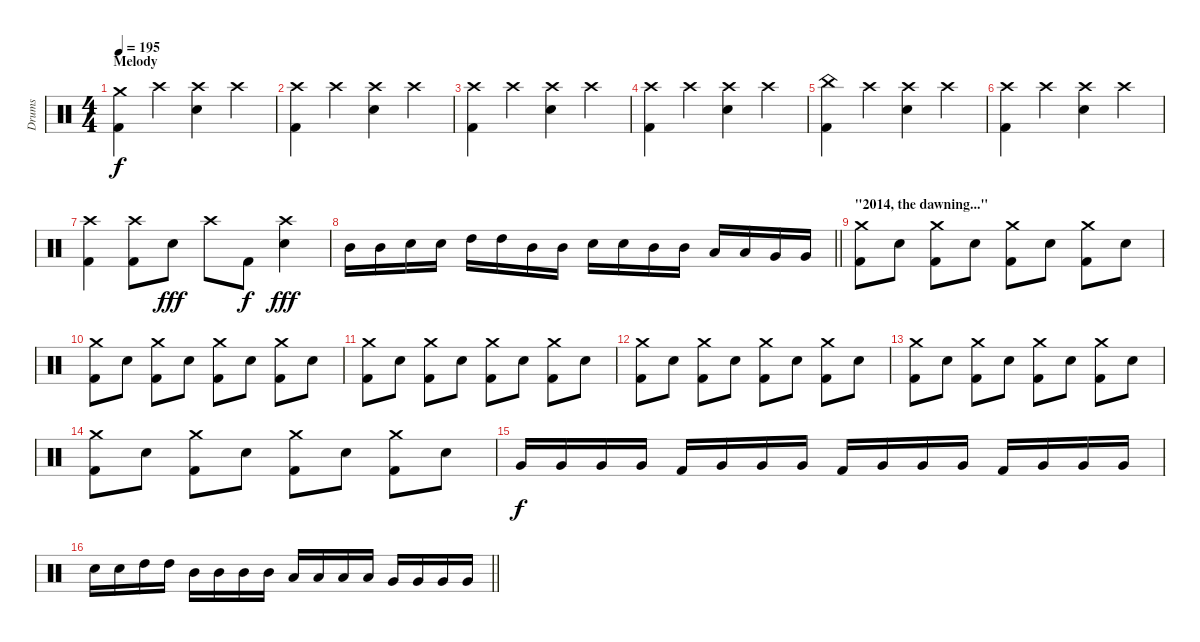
\track ("Drums" "Drums") {instrument percussion}
\staff {score}
\articulation defaults
\ts (4 4)
\section ("" "Melody")
\tempo 195
\clef neutral
\ks c
("Crash medium (hit)" "Kick (hit) 2").4{dy f} "Crash high (hit)".4 ("Crash high (hit)" "Snare (hit) 2").4 "Crash high (hit)".4 |
("Crash high (hit)" "Kick (hit) 2").4 "Crash high (hit)".4 ("Crash high (hit)" "Snare (hit) 2").4 "Crash high (hit)".4 |
("Crash high (hit)" "Kick (hit) 2").4 "Crash high (hit)".4 ("Crash high (hit)" "Snare (hit) 2").4 "Crash high (hit)".4 |
("Crash high (hit)" "Kick (hit) 2").4 "Crash high (hit)".4 ("Crash high (hit)" "Snare (hit) 2").4 "Crash high (hit)".4 |
("China (hit)" "Kick (hit) 2").4 "Crash high (hit)".4 ("Crash high (hit)" "Snare (hit) 2").4 "Crash high (hit)".4 |
("Crash high (hit)" "Kick (hit) 2").4 "Crash high (hit)".4 ("Crash high (hit)" "Snare (hit) 2").4 "Crash high (hit)".4 |
("Crash high (hit)" "Kick (hit) 2").4 ("Crash high (hit)" "Kick (hit) 2").8 "Snare (hit) 2".8{dy fff} "Crash high (hit)".8 "Kick (hit) 2".8{dy f} ("Crash high (hit)" "Snare (hit) 2").4{dy fff} |
\barLineRight lightlight "Mid Tom (hit)".16 "Mid Tom (hit)".16 "Snare (hit) 2".16 "Snare (hit) 2".16 "High Tom (hit)".16 "High Tom (hit)".16 "Mid Tom (hit)".16 "Mid Tom (hit)".16 "Snare (hit) 2".16 "Snare (hit) 2".16 "Mid Tom (hit)".16 "Mid Tom (hit)".16 "Low Tom (hit)".16 "Low Tom (hit)".16 "Very Low Tom (hit)".16 "Very Low Tom (hit)".16
|
\section ("" "\"2014, the dawning...\"")
("Crash medium (hit)" "Kick (hit) 2").8 "Snare (hit) 2".8 ("Crash medium (hit)" "Kick (hit) 2").8 "Snare (hit) 2".8 ("Crash medium (hit)" "Kick (hit) 2").8 "Snare (hit) 2".8 ("Crash medium (hit)" "Kick (hit) 2").8 "Snare (hit) 2".8 |
("Crash medium (hit)" "Kick (hit) 2").8 "Snare (hit) 2".8 ("Crash medium (hit)" "Kick (hit) 2").8 "Snare (hit) 2".8 ("Crash medium (hit)" "Kick (hit) 2").8 "Snare (hit) 2".8 ("Crash medium (hit)" "Kick (hit) 2").8 "Snare (hit) 2".8 |
("Crash medium (hit)" "Kick (hit) 2").8 "Snare (hit) 2".8 ("Crash medium (hit)" "Kick (hit) 2").8 "Snare (hit) 2".8 ("Crash medium (hit)" "Kick (hit) 2").8 "Snare (hit) 2".8 ("Crash medium (hit)" "Kick (hit) 2").8 "Snare (hit) 2".8 |
("Crash medium (hit)" "Kick (hit) 2").8 "Snare (hit) 2".8 ("Crash medium (hit)" "Kick (hit) 2").8 "Snare (hit) 2".8 ("Crash medium (hit)" "Kick (hit) 2").8 "Snare (hit) 2".8 ("Crash medium (hit)" "Kick (hit) 2").8 "Snare (hit) 2".8 |
("Crash medium (hit)" "Kick (hit) 2").8 "Snare (hit) 2".8 ("Crash medium (hit)" "Kick (hit) 2").8 "Snare (hit) 2".8 ("Crash medium (hit)" "Kick (hit) 2").8 "Snare (hit) 2".8 ("Crash medium (hit)" "Kick (hit) 2").8 "Snare (hit) 2".8 |
("Crash medium (hit)" "Kick (hit) 2").8 "Snare (hit) 2".8 ("Crash medium (hit)" "Kick (hit) 2").8 "Snare (hit) 2".8 ("Crash medium (hit)" "Kick (hit) 2").8 "Snare (hit) 2".8 ("Crash medium (hit)" "Kick (hit) 2").8 "Snare (hit) 2".8 |
"Very Low Tom (hit)".16{dy f} "Very Low Tom (hit)".16 "Very Low Tom (hit)".16 "Very Low Tom (hit)".16 "Kick (hit) 2".16 "Very Low Tom (hit)".16 "Very Low Tom (hit)".16 "Very Low Tom (hit)".16 "Kick (hit) 2".16 "Very Low Tom (hit)".16 "Very Low Tom (hit)".16 "Very Low Tom (hit)".16 "Kick (hit) 2".16 "Very Low Tom (hit)".16 "Very Low Tom (hit)".16 "Very Low Tom (hit)".16 |
\barLineRight lightlight "Snare (hit) 2".16 "Snare (hit) 2".16 "High Tom (hit)".16 "High Tom (hit)".16 "Mid Tom (hit)".16 "Mid Tom (hit)".16 "Mid Tom (hit)".16 "Mid Tom (hit)".16 "Low Tom (hit)".16 "Low Tom (hit)".16 "Low Tom (hit)".16 "Low Tom (hit)".16 "Very Low Tom (hit)".16 "Very Low Tom (hit)".16 "Very Low Tom (hit)".16 "Very Low Tom (hit)".16
